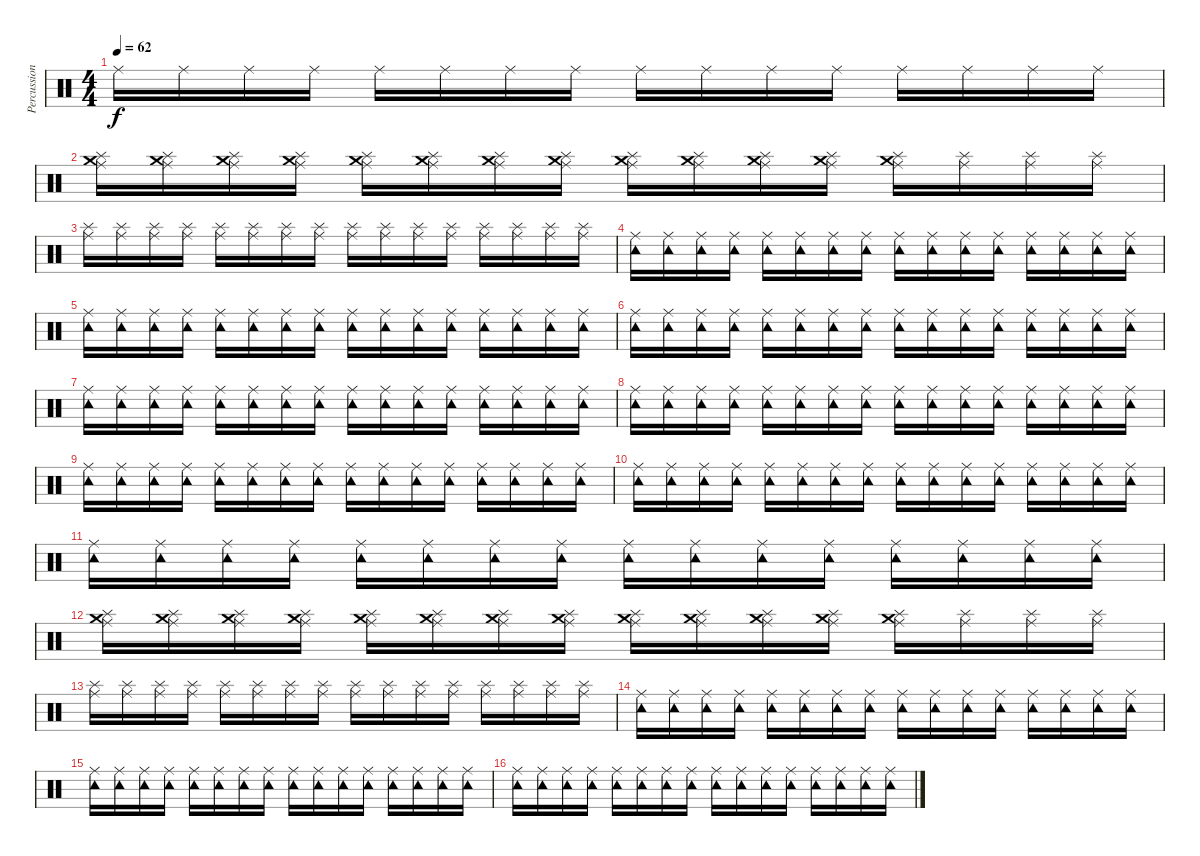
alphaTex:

\track ("Percussion" "Percussion") {instrument percussion}
\staff {score}
\articulation defaults
\ts (4 4)
\tempo 62
\clef neutral
\ks c "Ride (middle)".16{dy f} "Ride (middle)".16 "Ride (middle)".16 "Ride (middle)".16 "Ride (middle)".16 "Ride (middle)".16 "Ride (middle)".16 "Ride (middle)".16 "Ride (middle)".16 "Ride (middle)".16 "Ride (middle)".16 "Ride (middle)".16 "Ride (middle)".16 "Ride (middle)".16 "Ride (middle)".16 "Ride (middle)".16
|
("Ride (middle)" "Splash (hit)" "Crash medium (hit)").16 ("Ride (middle)" "Splash (hit)" "Crash medium (hit)").16 ("Ride (middle)" "Splash (hit)" "Crash medium (hit)").16 ("Ride (middle)" "Splash (hit)" "Crash medium (hit)").16 ("Ride (middle)" "Splash (hit)" "Crash medium (hit)").16 ("Splash (hit)" "Ride (middle)" "Crash medium (hit)").16 ("Splash (hit)" "Ride (middle)" "Crash medium (hit)").16 ("Splash (hit)" "Ride (middle)" "Crash medium (hit)").16 ("Splash (hit)" "Ride (middle)" "Crash medium (hit)").16 ("Splash (hit)" "Ride (middle)" "Crash medium (hit)").16 ("Splash (hit)" "Ride (middle)" "Crash medium (hit)").16 ("Splash (hit)" "Ride (middle)" "Crash medium (hit)").16 ("Splash (hit)" "Ride (middle)" "Crash medium (hit)").16 ("Splash (hit)" "Ride (middle)").16 ("Splash (hit)" "Ride (middle)").16 ("Splash (hit)" "Ride (middle)").16 |
("Ride (middle)" "Splash (hit)").16 ("Ride (middle)" "Splash (hit)").16 ("Ride (middle)" "Splash (hit)").16 ("Ride (middle)" "Splash (hit)").16 ("Ride (middle)" "Splash (hit)").16 ("Splash (hit)" "Ride (middle)").16 ("Splash (hit)" "Ride (middle)").16 ("Splash (hit)" "Ride (middle)").16 ("Splash (hit)" "Ride (middle)").16 ("Splash (hit)" "Ride (middle)").16 ("Splash (hit)" "Ride (middle)").16 ("Splash (hit)" "Ride (middle)").16 ("Splash (hit)" "Ride (middle)").16 ("Splash (hit)" "Ride (middle)").16 ("Splash (hit)" "Ride (middle)").16 ("Splash (hit)" "Ride (middle)").16 |
("Ride (middle)" "Tambourine (hit)").16 ("Ride (middle)" "Tambourine (hit)").16 ("Ride (middle)" "Tambourine (hit)").16 ("Ride (middle)" "Tambourine (hit)").16 ("Ride (middle)" "Tambourine (hit)").16 ("Ride (middle)" "Tambourine (hit)").16 ("Ride (middle)" "Tambourine (hit)").16 ("Ride (middle)" "Tambourine (hit)").16 ("Ride (middle)" "Tambourine (hit)").16 ("Ride (middle)" "Tambourine (hit)").16 ("Ride (middle)" "Tambourine (hit)").16 ("Ride (middle)" "Tambourine (hit)").16 ("Ride (middle)" "Tambourine (hit)").16 ("Ride (middle)" "Tambourine (hit)").16 ("Ride (middle)" "Tambourine (hit)").16 ("Tambourine (hit)" "Ride (middle)").16 |
("Ride (middle)" "Tambourine (hit)").16 ("Ride (middle)" "Tambourine (hit)").16 ("Ride (middle)" "Tambourine (hit)").16 ("Ride (middle)" "Tambourine (hit)").16 ("Ride (middle)" "Tambourine (hit)").16 ("Ride (middle)" "Tambourine (hit)").16 ("Ride (middle)" "Tambourine (hit)").16 ("Ride (middle)" "Tambourine (hit)").16 ("Ride (middle)" "Tambourine (hit)").16 ("Ride (middle)" "Tambourine (hit)").16 ("Ride (middle)" "Tambourine (hit)").16 ("Ride (middle)" "Tambourine (hit)").16 ("Ride (middle)" "Tambourine (hit)").16 ("Ride (middle)" "Tambourine (hit)").16 ("Ride (middle)" "Tambourine (hit)").16 ("Tambourine (hit)" "Ride (middle)").16 |
("Ride (middle)" "Tambourine (hit)").16 ("Ride (middle)" "Tambourine (hit)").16 ("Ride (middle)" "Tambourine (hit)").16 ("Ride (middle)" "Tambourine (hit)").16 ("Ride (middle)" "Tambourine (hit)").16 ("Ride (middle)" "Tambourine (hit)").16 ("Ride (middle)" "Tambourine (hit)").16 ("Ride (middle)" "Tambourine (hit)").16 ("Ride (middle)" "Tambourine (hit)").16 ("Ride (middle)" "Tambourine (hit)").16 ("Ride (middle)" "Tambourine (hit)").16 ("Ride (middle)" "Tambourine (hit)").16 ("Ride (middle)" "Tambourine (hit)").16 ("Ride (middle)" "Tambourine (hit)").16 ("Ride (middle)" "Tambourine (hit)").16 ("Tambourine (hit)" "Ride (middle)").16 |
("Ride (middle)" "Tambourine (hit)").16 ("Ride (middle)" "Tambourine (hit)").16 ("Ride (middle)" "Tambourine (hit)").16 ("Ride (middle)" "Tambourine (hit)").16 ("Ride (middle)" "Tambourine (hit)").16 ("Ride (middle)" "Tambourine (hit)").16 ("Ride (middle)" "Tambourine (hit)").16 ("Ride (middle)" "Tambourine (hit)").16 ("Ride (middle)" "Tambourine (hit)").16 ("Ride (middle)" "Tambourine (hit)").16 ("Ride (middle)" "Tambourine (hit)").16 ("Ride (middle)" "Tambourine (hit)").16 ("Ride (middle)" "Tambourine (hit)").16 ("Ride (middle)" "Tambourine (hit)").16 ("Ride (middle)" "Tambourine (hit)").16 ("Tambourine (hit)" "Ride (middle)").16 |
("Ride (middle)" "Tambourine (hit)").16 ("Ride (middle)" "Tambourine (hit)").16 ("Ride (middle)" "Tambourine (hit)").16 ("Ride (middle)" "Tambourine (hit)").16 ("Ride (middle)" "Tambourine (hit)").16 ("Ride (middle)" "Tambourine (hit)").16 ("Ride (middle)" "Tambourine (hit)").16 ("Ride (middle)" "Tambourine (hit)").16 ("Ride (middle)" "Tambourine (hit)").16 ("Ride (middle)" "Tambourine (hit)").16 ("Ride (middle)" "Tambourine (hit)").16 ("Ride (middle)" "Tambourine (hit)").16 ("Ride (middle)" "Tambourine (hit)").16 ("Ride (middle)" "Tambourine (hit)").16 ("Ride (middle)" "Tambourine (hit)").16 ("Tambourine (hit)" "Ride (middle)").16 |
("Ride (middle)" "Tambourine (hit)").16 ("Ride (middle)" "Tambourine (hit)").16 ("Ride (middle)" "Tambourine (hit)").16 ("Ride (middle)" "Tambourine (hit)").16 ("Ride (middle)" "Tambourine (hit)").16 ("Ride (middle)" "Tambourine (hit)").16 ("Ride (middle)" "Tambourine (hit)").16 ("Ride (middle)" "Tambourine (hit)").16 ("Ride (middle)" "Tambourine (hit)").16 ("Ride (middle)" "Tambourine (hit)").16 ("Ride (middle)" "Tambourine (hit)").16 ("Ride (middle)" "Tambourine (hit)").16 ("Ride (middle)" "Tambourine (hit)").16 ("Ride (middle)" "Tambourine (hit)").16 ("Ride (middle)" "Tambourine (hit)").16 ("Tambourine (hit)" "Ride (middle)").16 |
("Ride (middle)" "Tambourine (hit)").16 ("Ride (middle)" "Tambourine (hit)").16 ("Ride (middle)" "Tambourine (hit)").16 ("Ride (middle)" "Tambourine (hit)").16 ("Ride (middle)" "Tambourine (hit)").16 ("Ride (middle)" "Tambourine (hit)").16 ("Ride (middle)" "Tambourine (hit)").16 ("Ride (middle)" "Tambourine (hit)").16 ("Ride (middle)" "Tambourine (hit)").16 ("Ride (middle)" "Tambourine (hit)").16 ("Ride (middle)" "Tambourine (hit)").16 ("Ride (middle)" "Tambourine (hit)").16 ("Ride (middle)" "Tambourine (hit)").16 ("Ride (middle)" "Tambourine (hit)").16 ("Ride (middle)" "Tambourine (hit)").16 ("Tambourine (hit)" "Ride (middle)").16 |
("Ride (middle)" "Tambourine (hit)").16 ("Ride (middle)" "Tambourine (hit)").16 ("Ride (middle)" "Tambourine (hit)").16 ("Ride (middle)" "Tambourine (hit)").16 ("Ride (middle)" "Tambourine (hit)").16 ("Ride (middle)" "Tambourine (hit)").16 ("Ride (middle)" "Tambourine (hit)").16 ("Ride (middle)" "Tambourine (hit)").16 ("Ride (middle)" "Tambourine (hit)").16 ("Ride (middle)" "Tambourine (hit)").16 ("Ride (middle)" "Tambourine (hit)").16 ("Ride (middle)" "Tambourine (hit)").16 ("Ride (middle)" "Tambourine (hit)").16 ("Ride (middle)" "Tambourine (hit)").16 ("Ride (middle)" "Tambourine (hit)").16 ("Tambourine (hit)" "Ride (middle)").16 |
("Ride (middle)" "Splash (hit)" "Crash medium (hit)").16 ("Ride (middle)" "Splash (hit)" "Crash medium (hit)").16 ("Ride (middle)" "Splash (hit)" "Crash medium (hit)").16 ("Ride (middle)" "Splash (hit)" "Crash medium (hit)").16 ("Ride (middle)" "Splash (hit)" "Crash medium (hit)").16 ("Splash (hit)" "Ride (middle)" "Crash medium (hit)").16 ("Splash (hit)" "Ride (middle)" "Crash medium (hit)").16 ("Splash (hit)" "Ride (middle)" "Crash medium (hit)").16 ("Splash (hit)" "Ride (middle)" "Crash medium (hit)").16 ("Splash (hit)" "Ride (middle)" "Crash medium (hit)").16 ("Splash (hit)" "Ride (middle)" "Crash medium (hit)").16 ("Splash (hit)" "Ride (middle)" "Crash medium (hit)").16 ("Splash (hit)" "Ride (middle)" "Crash medium (hit)").16 ("Splash (hit)" "Ride (middle)").16 ("Splash (hit)" "Ride (middle)").16 ("Splash (hit)" "Ride (middle)").16 |
("Ride (middle)" "Splash (hit)").16 ("Ride (middle)" "Splash (hit)").16 ("Ride (middle)" "Splash (hit)").16 ("Ride (middle)" "Splash (hit)").16 ("Ride (middle)" "Splash (hit)").16 ("Splash (hit)" "Ride (middle)").16 ("Splash (hit)" "Ride (middle)").16 ("Splash (hit)" "Ride (middle)").16 ("Splash (hit)" "Ride (middle)").16 ("Splash (hit)" "Ride (middle)").16 ("Splash (hit)" "Ride (middle)").16 ("Splash (hit)" "Ride (middle)").16 ("Splash (hit)" "Ride (middle)").16 ("Splash (hit)" "Ride (middle)").16 ("Splash (hit)" "Ride (middle)").16 ("Splash (hit)" "Ride (middle)").16 |
("Ride (middle)" "Tambourine (hit)").16 ("Ride (middle)" "Tambourine (hit)").16 ("Ride (middle)" "Tambourine (hit)").16 ("Ride (middle)" "Tambourine (hit)").16 ("Ride (middle)" "Tambourine (hit)").16 ("Ride (middle)" "Tambourine (hit)").16 ("Ride (middle)" "Tambourine (hit)").16 ("Ride (middle)" "Tambourine (hit)").16 ("Ride (middle)" "Tambourine (hit)").16 ("Ride (middle)" "Tambourine (hit)").16 ("Ride (middle)" "Tambourine (hit)").16 ("Ride (middle)" "Tambourine (hit)").16 ("Ride (middle)" "Tambourine (hit)").16 ("Ride (middle)" "Tambourine (hit)").16 ("Ride (middle)" "Tambourine (hit)").16 ("Tambourine (hit)" "Ride (middle)").16 |
("Ride (middle)" "Tambourine (hit)").16 ("Ride (middle)" "Tambourine (hit)").16 ("Ride (middle)" "Tambourine (hit)").16 ("Ride (middle)" "Tambourine (hit)").16 ("Ride (middle)" "Tambourine (hit)").16 ("Ride (middle)" "Tambourine (hit)").16 ("Ride (middle)" "Tambourine (hit)").16 ("Ride (middle)" "Tambourine (hit)").16 ("Ride (middle)" "Tambourine (hit)").16 ("Ride (middle)" "Tambourine (hit)").16 ("Ride (middle)" "Tambourine (hit)").16 ("Ride (middle)" "Tambourine (hit)").16 ("Ride (middle)" "Tambourine (hit)").16 ("Ride (middle)" "Tambourine (hit)").16 ("Ride (middle)" "Tambourine (hit)").16 ("Tambourine (hit)" "Ride (middle)").16 |
("Ride (middle)" "Tambourine (hit)").16 ("Ride (middle)" "Tambourine (hit)").16 ("Ride (middle)" "Tambourine (hit)").16 ("Ride (middle)" "Tambourine (hit)").16 ("Ride (middle)" "Tambourine (hit)").16 ("Ride (middle)" "Tambourine (hit)").16 ("Ride (middle)" "Tambourine (hit)").16 ("Ride (middle)" "Tambourine (hit)").16 ("Ride (middle)" "Tambourine (hit)").16 ("Ride (middle)" "Tambourine (hit)").16 ("Ride (middle)" "Tambourine (hit)").16 ("Ride (middle)" "Tambourine (hit)").16 ("Ride (middle)" "Tambourine (hit)").16 ("Ride (middle)" "Tambourine (hit)").16 ("Ride (middle)" "Tambourine (hit)").16 ("Tambourine (hit)" "Ride (middle)").16
